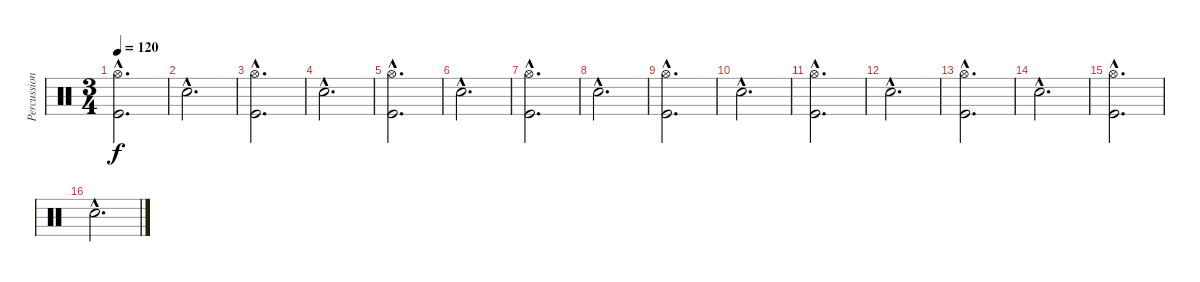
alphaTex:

\track ("Percussion" "Percussion") {instrument percussion}
\staff {score}
\articulation defaults
\ts (3 4)
\tempo 120
\clef neutral
\ks c
("Hi-Hat (open)"{hac} "Kick (hit)"{hac}).2{d dy f} |
"Snare (hit) 2"{hac}.2{d} |
("Hi-Hat (open)"{hac} "Kick (hit)"{hac}).2{d} |
"Snare (hit) 2"{hac}.2{d} |
("Hi-Hat (open)"{hac} "Kick (hit)"{hac}).2{d} |
"Snare (hit) 2"{hac}.2{d} |
("Hi-Hat (open)"{hac} "Kick (hit)"{hac}).2{d} |
"Snare (hit) 2"{hac}.2{d} |
("Hi-Hat (open)"{hac} "Kick (hit)"{hac}).2{d} |
"Snare (hit) 2"{hac}.2{d} |
("Hi-Hat (open)"{hac} "Kick (hit)"{hac}).2{d} |
"Snare (hit) 2"{hac}.2{d} |
("Hi-Hat (open)"{hac} "Kick (hit)"{hac}).2{d} |
"Snare (hit) 2"{hac}.2{d} |
("Hi-Hat (open)"{hac} "Kick (hit)"{hac}).2{d} |
"Snare (hit) 2"{hac}.2{d}
